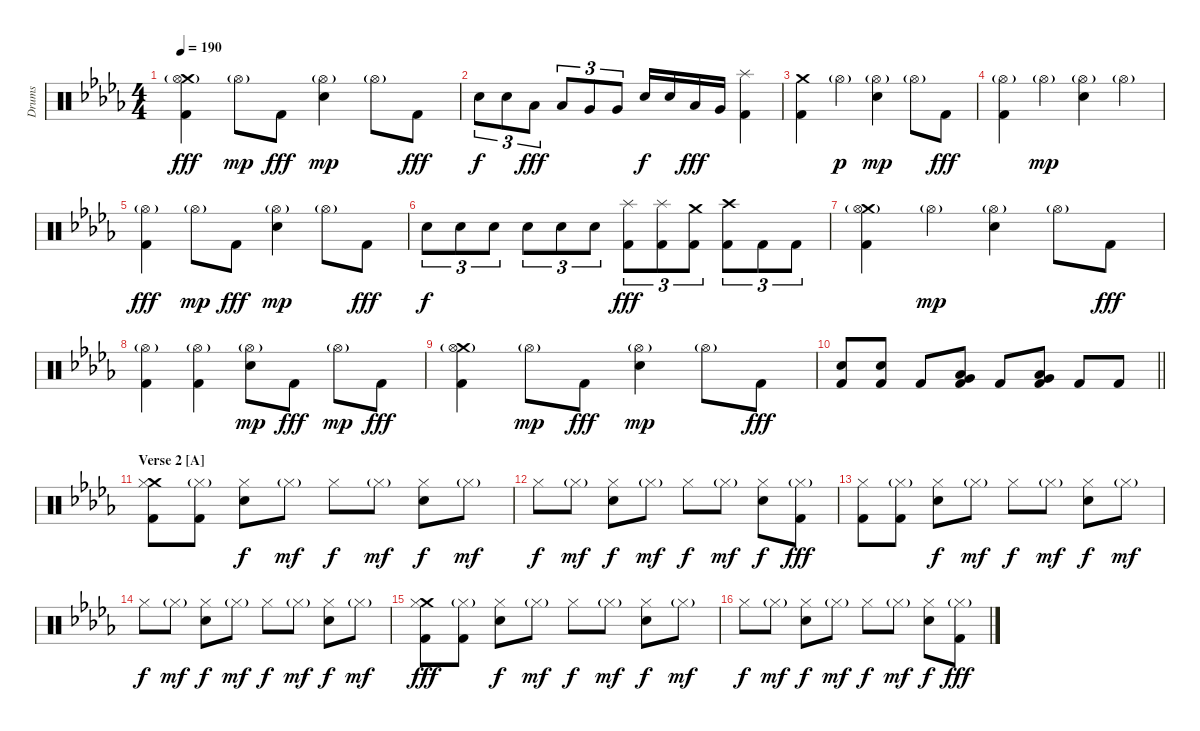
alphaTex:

\track ("Drums" "Drums") {instrument percussion}
\staff {score}
\articulation defaults
\ts (4 4)
\tempo 190
\clef neutral
\ks db
("Crash medium (hit)" "Hi-Hat (open)"{g} "Kick (hit) 2").4{dy fff} "Hi-Hat (open)"{g}.8{dy mp} "Kick (hit) 2".8{dy fff} ("Hi-Hat (open)"{g} "Electric Snare (hit)").4{dy mp} "Hi-Hat (open)"{g}.8 "Kick (hit) 2".8{dy fff} |
"Electric Snare (hit)".8{tu (3 2) dy f} "Electric Snare (hit)".8{tu (3 2)} "Low Tom (hit)".8{tu (3 2) dy fff} "Low Tom (hit)".8{tu (3 2)} "Very Low Tom (hit)".8{tu (3 2)} "Very Low Tom (hit)".8{tu (3 2)} "Electric Snare (hit)".16{dy f} "Electric Snare (hit)".16 "Low Tom (hit)".16{dy fff} "Very Low Tom (hit)".16 ("Splash (hit)" "Kick (hit) 2").4 |
("Crash medium (hit)" "Kick (hit) 2").4 "Hi-Hat (open)"{g}.4{dy p} ("Hi-Hat (open)"{g} "Electric Snare (hit)").4{dy mp} "Hi-Hat (open)"{g}.8 "Kick (hit) 2".8{dy fff} |
("Hi-Hat (open)"{g} "Kick (hit) 2").4 "Hi-Hat (open)"{g}.4{dy mp} ("Hi-Hat (open)"{g} "Electric Snare (hit)").4 "Hi-Hat (open)"{g}.4 |
("Hi-Hat (open)"{g} "Kick (hit) 2").4{dy fff} "Hi-Hat (open)"{g}.8{dy mp} "Kick (hit) 2".8{dy fff} ("Hi-Hat (open)"{g} "Electric Snare (hit)").4{dy mp} "Hi-Hat (open)"{g}.8 "Kick (hit) 2".8{dy fff} |
"Electric Snare (hit)".8{tu (3 2) dy f} "Electric Snare (hit)".8{tu (3 2)} "Electric Snare (hit)".8{tu (3 2)} "Electric Snare (hit)".8{tu (3 2)} "Electric Snare (hit)".8{tu (3 2)} "Electric Snare (hit)".8{tu (3 2)} ("Splash (hit)" "Kick (hit) 2").8{tu (3 2) dy fff} ("Splash (hit)" "Kick (hit) 2").8{tu (3 2)} ("Crash medium (hit)" "Kick (hit) 2").8{tu (3 2)} ("Crash high (hit)" "Kick (hit) 2").8{tu (3 2)} "Kick (hit) 2".8{tu (3 2)} "Kick (hit) 2".8{tu (3 2)} |
("Crash medium (hit)" "Hi-Hat (open)"{g} "Kick (hit) 2").4 "Hi-Hat (open)"{g}.4{dy mp} ("Hi-Hat (open)"{g} "Electric Snare (hit)").4 "Hi-Hat (open)"{g}.8 "Kick (hit) 2".8{dy fff} |
("Hi-Hat (open)"{g} "Kick (hit) 2").4 ("Hi-Hat (open)"{g} "Kick (hit) 2").4 ("Hi-Hat (open)"{g} "Electric Snare (hit)").8{dy mp} "Kick (hit) 2".8{dy fff} "Hi-Hat (open)"{g}.8{dy mp} "Kick (hit) 2".8{dy fff} |
("Crash medium (hit)" "Hi-Hat (open)"{g} "Kick (hit) 2").4 "Hi-Hat (open)"{g}.8{dy mp} "Kick (hit) 2".8{dy fff} ("Hi-Hat (open)"{g} "Electric Snare (hit)").4{dy mp} "Hi-Hat (open)"{g}.8 "Kick (hit) 2".8{dy fff} |
\barLineRight lightlight
("Electric Snare (hit)" "Kick (hit) 2").8 ("Electric Snare (hit)" "Kick (hit) 2").8 "Kick (hit) 2".8 ("Low Tom (hit)" "Very Low Tom (hit)" "Kick (hit) 2").8 "Kick (hit) 2".8 ("Very Low Tom (hit)" "Low Floor Tom (hit)" "Kick (hit) 2").8 "Kick (hit) 2".8 "Kick (hit) 2".8 |
\section ("" "Verse 2 [A]")
("Crash medium (hit)" "Hi-Hat (closed)" "Kick (hit) 2").8 ("Hi-Hat (closed)"{g} "Kick (hit) 2").8 ("Hi-Hat (closed)" "Electric Snare (hit)").8{dy f} "Hi-Hat (closed)"{g}.8{dy mf} "Hi-Hat (closed)".8{dy f} "Hi-Hat (closed)"{g}.8{dy mf} ("Hi-Hat (closed)" "Electric Snare (hit)").8{dy f} "Hi-Hat (closed)"{g}.8{dy mf} |
"Hi-Hat (closed)".8{dy f} "Hi-Hat (closed)"{g}.8{dy mf} ("Hi-Hat (closed)" "Electric Snare (hit)").8{dy f} "Hi-Hat (closed)"{g}.8{dy mf} "Hi-Hat (closed)".8{dy f} "Hi-Hat (closed)"{g}.8{dy mf} ("Hi-Hat (closed)" "Electric Snare (hit)").8{dy f} ("Hi-Hat (closed)"{g} "Kick (hit) 2").8{dy fff} |
("Hi-Hat (closed)" "Kick (hit) 2").8 ("Hi-Hat (closed)"{g} "Kick (hit) 2").8 ("Hi-Hat (closed)" "Electric Snare (hit)").8{dy f} "Hi-Hat (closed)"{g}.8{dy mf} "Hi-Hat (closed)".8{dy f} "Hi-Hat (closed)"{g}.8{dy mf} ("Hi-Hat (closed)" "Electric Snare (hit)").8{dy f} "Hi-Hat (closed)"{g}.8{dy mf} |
"Hi-Hat (closed)".8{dy f} "Hi-Hat (closed)"{g}.8{dy mf} ("Hi-Hat (closed)" "Electric Snare (hit)").8{dy f} "Hi-Hat (closed)"{g}.8{dy mf} "Hi-Hat (closed)".8{dy f} "Hi-Hat (closed)"{g}.8{dy mf} ("Hi-Hat (closed)" "Electric Snare (hit)").8{dy f} "Hi-Hat (closed)"{g}.8{dy mf} |
("Crash medium (hit)" "Hi-Hat (closed)" "Kick (hit) 2").8{dy fff} ("Hi-Hat (closed)"{g} "Kick (hit) 2").8 ("Hi-Hat (closed)" "Electric Snare (hit)").8{dy f} "Hi-Hat (closed)"{g}.8{dy mf} "Hi-Hat (closed)".8{dy f} "Hi-Hat (closed)"{g}.8{dy mf} ("Hi-Hat (closed)" "Electric Snare (hit)").8{dy f} "Hi-Hat (closed)"{g}.8{dy mf} |
"Hi-Hat (closed)".8{dy f} "Hi-Hat (closed)"{g}.8{dy mf} ("Hi-Hat (closed)" "Electric Snare (hit)").8{dy f} "Hi-Hat (closed)"{g}.8{dy mf} "Hi-Hat (closed)".8{dy f} "Hi-Hat (closed)"{g}.8{dy mf} ("Hi-Hat (closed)" "Electric Snare (hit)").8{dy f} ("Hi-Hat (closed)"{g} "Kick (hit) 2").8{dy fff}
